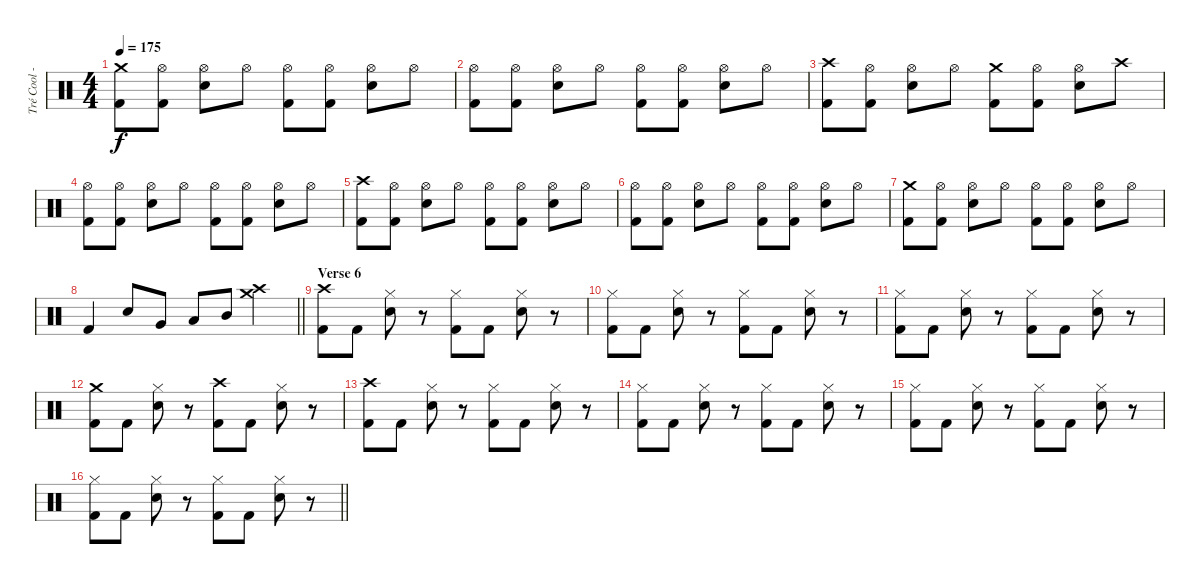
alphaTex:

\track ("Tré Cool - Drums" "Tré Cool -") {instrument percussion}
\staff {score}
\articulation defaults
\ts (4 4)
\tempo 175
\clef neutral
\ks c
("Crash medium (hit)" "Kick (hit) 2").8{dy f} ("Hi-Hat (open)" "Kick (hit) 2").8 ("Hi-Hat (open)" "Electric Snare (hit)").8 "Hi-Hat (open)".8 ("Hi-Hat (open)" "Kick (hit) 2").8 ("Hi-Hat (open)" "Kick (hit) 2").8 ("Hi-Hat (open)" "Electric Snare (hit)").8 "Hi-Hat (open)".8 |
("Hi-Hat (open)" "Kick (hit) 2").8 ("Hi-Hat (open)" "Kick (hit) 2").8 ("Hi-Hat (open)" "Electric Snare (hit)").8 "Hi-Hat (open)".8 ("Hi-Hat (open)" "Kick (hit) 2").8 ("Hi-Hat (open)" "Kick (hit) 2").8 ("Hi-Hat (open)" "Electric Snare (hit)").8 "Hi-Hat (open)".8 |
("Crash high (hit)" "Kick (hit) 2").8 ("Hi-Hat (open)" "Kick (hit) 2").8 ("Hi-Hat (open)" "Electric Snare (hit)").8 "Hi-Hat (open)".8 ("Crash medium (hit)" "Kick (hit) 2").8 ("Hi-Hat (open)" "Kick (hit) 2").8 ("Hi-Hat (open)" "Electric Snare (hit)").8 "Crash high (hit)".8 |
("Hi-Hat (open)" "Kick (hit) 2").8 ("Hi-Hat (open)" "Kick (hit) 2").8 ("Hi-Hat (open)" "Electric Snare (hit)").8 "Hi-Hat (open)".8 ("Hi-Hat (open)" "Kick (hit) 2").8 ("Hi-Hat (open)" "Kick (hit) 2").8 ("Hi-Hat (open)" "Electric Snare (hit)").8 "Hi-Hat (open)".8 |
("Crash high (hit)" "Kick (hit) 2").8 ("Hi-Hat (open)" "Kick (hit) 2").8 ("Hi-Hat (open)" "Electric Snare (hit)").8 "Hi-Hat (open)".8 ("Hi-Hat (open)" "Kick (hit) 2").8 ("Hi-Hat (open)" "Kick (hit) 2").8 ("Hi-Hat (open)" "Electric Snare (hit)").8 "Hi-Hat (open)".8 |
("Hi-Hat (open)" "Kick (hit) 2").8 ("Hi-Hat (open)" "Kick (hit) 2").8 ("Hi-Hat (open)" "Electric Snare (hit)").8 "Hi-Hat (open)".8 ("Hi-Hat (open)" "Kick (hit) 2").8 ("Hi-Hat (open)" "Kick (hit) 2").8 ("Hi-Hat (open)" "Electric Snare (hit)").8 "Hi-Hat (open)".8 |
("Crash medium (hit)" "Kick (hit) 2").8 ("Hi-Hat (open)" "Kick (hit) 2").8 ("Hi-Hat (open)" "Electric Snare (hit)").8 "Hi-Hat (open)".8 ("Hi-Hat (open)" "Kick (hit) 2").8 ("Hi-Hat (open)" "Kick (hit) 2").8 ("Hi-Hat (open)" "Electric Snare (hit)").8 "Hi-Hat (open)".8 |
\barLineRight lightlight "Kick (hit) 2".4 "Electric Snare (hit)".8 "Very Low Tom (hit)".8 "Low Tom (hit)".8 "Mid Tom (hit)".8
("Crash high (hit)" "Crash medium (hit)").4 |
\section ("" "Verse 6")
("Crash high (hit)" "Kick (hit) 2").8 "Kick (hit) 2".8 ("Hi-Hat (closed)" "Electric Snare (hit)").8 r.8 ("Hi-Hat (closed)" "Kick (hit) 2").8 "Kick (hit) 2".8 ("Hi-Hat (closed)" "Electric Snare (hit)").8 r.8 |
("Hi-Hat (closed)" "Kick (hit) 2").8 "Kick (hit) 2".8 ("Hi-Hat (closed)" "Electric Snare (hit)").8 r.8 ("Hi-Hat (closed)" "Kick (hit) 2").8 "Kick (hit) 2".8 ("Hi-Hat (closed)" "Electric Snare (hit)").8 r.8 |
("Hi-Hat (closed)" "Kick (hit) 2").8 "Kick (hit) 2".8 ("Hi-Hat (closed)" "Electric Snare (hit)").8 r.8 ("Hi-Hat (closed)" "Kick (hit) 2").8 "Kick (hit) 2".8 ("Hi-Hat (closed)" "Electric Snare (hit)").8 r.8 |
("Crash medium (hit)" "Kick (hit) 2").8 "Kick (hit) 2".8 ("Hi-Hat (closed)" "Electric Snare (hit)").8 r.8 ("Crash high (hit)" "Kick (hit) 2").8 "Kick (hit) 2".8 ("Hi-Hat (closed)" "Electric Snare (hit)").8 r.8 |
("Crash high (hit)" "Kick (hit) 2").8 "Kick (hit) 2".8 ("Hi-Hat (closed)" "Electric Snare (hit)").8 r.8 ("Hi-Hat (closed)" "Kick (hit) 2").8 "Kick (hit) 2".8 ("Hi-Hat (closed)" "Electric Snare (hit)").8 r.8 |
("Hi-Hat (closed)" "Kick (hit) 2").8 "Kick (hit) 2".8 ("Hi-Hat (closed)" "Electric Snare (hit)").8 r.8 ("Hi-Hat (closed)" "Kick (hit) 2").8 "Kick (hit) 2".8 ("Hi-Hat (closed)" "Electric Snare (hit)").8 r.8 |
("Hi-Hat (closed)" "Kick (hit) 2").8 "Kick (hit) 2".8 ("Hi-Hat (closed)" "Electric Snare (hit)").8 r.8 ("Hi-Hat (closed)" "Kick (hit) 2").8 "Kick (hit) 2".8 ("Hi-Hat (closed)" "Electric Snare (hit)").8 r.8 |
\barLineRight lightlight
("Hi-Hat (closed)" "Kick (hit) 2").8 "Kick (hit) 2".8 ("Hi-Hat (closed)" "Electric Snare (hit)").8 r.8 ("Hi-Hat (closed)" "Kick (hit) 2").8 "Kick (hit) 2".8 ("Hi-Hat (closed)" "Electric Snare (hit)").8 r.8
